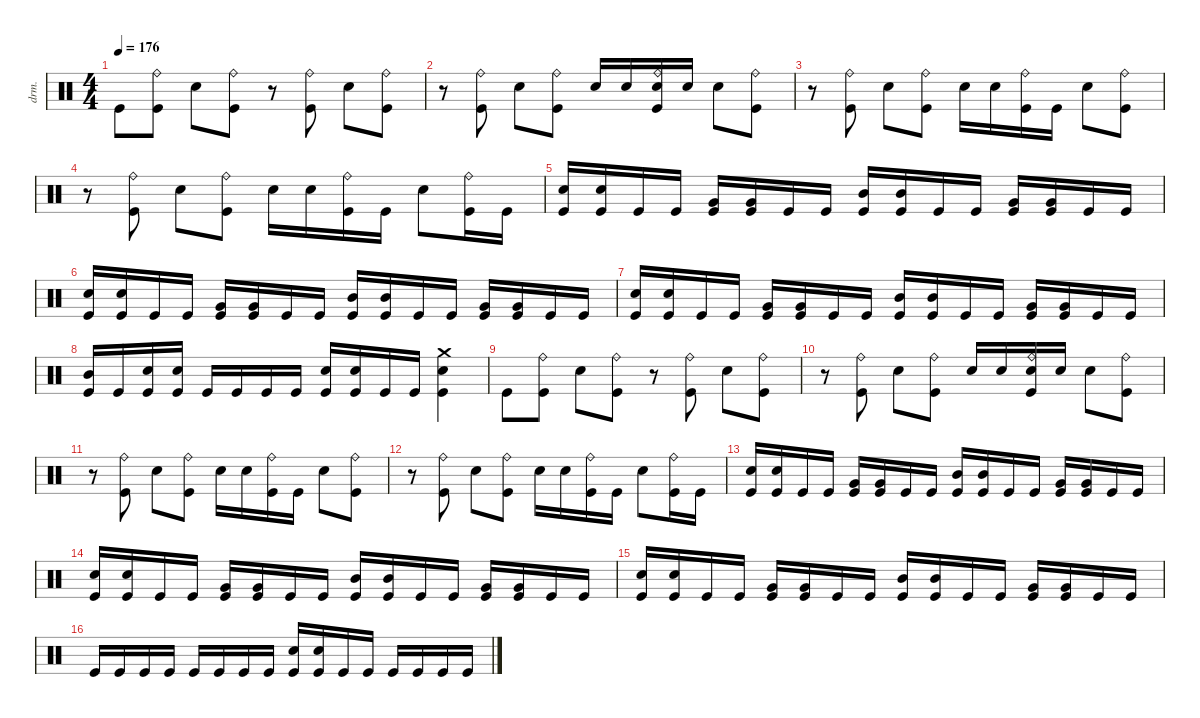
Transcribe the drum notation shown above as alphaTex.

\defaultSystemsLayout 4
\hideDynamics
\bracketExtendMode nobrackets
\track ("Gene Hoglan " "drm.") {instrument percussion}
\staff {score}
\articulation defaults
\ts (4 4)
\tempo 176
\clef neutral
\ks c "Kick (hit)".8{dy f}
("Ride (bell)" "Kick (hit)").8 "Snare (hit) 2".8 ("Ride (bell)" "Kick (hit)").8 r.8 ("Ride (bell)" "Kick (hit)").8 "Snare (hit) 2".8 ("Ride (bell)" "Kick (hit)").8 |
r.8 ("Ride (bell)" "Kick (hit)").8 "Snare (hit) 2".8 ("Ride (bell)" "Kick (hit)").8 "Snare (hit) 2".16 "Snare (hit) 2".16 ("Ride (bell)" "Snare (hit) 2" "Kick (hit)").16 "Snare (hit) 2".16 "Snare (hit) 2".8 ("Ride (bell)" "Kick (hit)").8 |
r.8 ("Ride (bell)" "Kick (hit)").8 "Snare (hit) 2".8 ("Ride (bell)" "Kick (hit)").8 "Snare (hit) 2".16 "Snare (hit) 2".16 ("Ride (bell)" "Kick (hit)").16 "Kick (hit)".16 "Snare (hit) 2".8 ("Ride (bell)" "Kick (hit)").8 |
r.8 ("Ride (bell)" "Kick (hit)").8 "Snare (hit) 2".8 ("Ride (bell)" "Kick (hit)").8 "Snare (hit) 2".16 "Snare (hit) 2".16 ("Ride (bell)" "Kick (hit)").16 "Kick (hit)".16 "Snare (hit) 2".8 ("Ride (bell)" "Kick (hit)").16 "Kick (hit)".16 |
("Snare (hit) 2" "Kick (hit)").16 ("Snare (hit) 2" "Kick (hit)").16 "Kick (hit)".16 "Kick (hit)".16 ("Very Low Tom (hit)" "Kick (hit)").16 ("Very Low Tom (hit)" "Kick (hit)").16 "Kick (hit)".16 "Kick (hit)".16 ("Mid Tom (hit)" "Kick (hit)").16 ("Mid Tom (hit)" "Kick (hit)").16 "Kick (hit)".16 "Kick (hit)".16 ("Very Low Tom (hit)" "Kick (hit)").16 ("Very Low Tom (hit)" "Kick (hit)").16 "Kick (hit)".16 "Kick (hit)".16 |
("Snare (hit) 2" "Kick (hit)").16 ("Snare (hit) 2" "Kick (hit)").16 "Kick (hit)".16 "Kick (hit)".16 ("Very Low Tom (hit)" "Kick (hit)").16 ("Very Low Tom (hit)" "Kick (hit)").16 "Kick (hit)".16 "Kick (hit)".16 ("Mid Tom (hit)" "Kick (hit)").16 ("Mid Tom (hit)" "Kick (hit)").16 "Kick (hit)".16 "Kick (hit)".16 ("Very Low Tom (hit)" "Kick (hit)").16 ("Very Low Tom (hit)" "Kick (hit)").16 "Kick (hit)".16 "Kick (hit)".16 |
("Snare (hit) 2" "Kick (hit)").16 ("Snare (hit) 2" "Kick (hit)").16 "Kick (hit)".16 "Kick (hit)".16 ("Very Low Tom (hit)" "Kick (hit)").16 ("Very Low Tom (hit)" "Kick (hit)").16 "Kick (hit)".16 "Kick (hit)".16 ("Mid Tom (hit)" "Kick (hit)").16 ("Mid Tom (hit)" "Kick (hit)").16 "Kick (hit)".16 "Kick (hit)".16 ("Very Low Tom (hit)" "Kick (hit)").16 ("Very Low Tom (hit)" "Kick (hit)").16 "Kick (hit)".16 "Kick (hit)".16 |
("Mid Tom (hit)" "Kick (hit)").16 "Kick (hit)".16 ("Snare (hit) 2" "Kick (hit)").16 ("Snare (hit) 2" "Kick (hit)").16 "Kick (hit)".16 "Kick (hit)".16 "Kick (hit)".16 "Kick (hit)".16 ("Snare (hit) 2" "Kick (hit)").16 ("Snare (hit) 2" "Kick (hit)").16 "Kick (hit)".16 "Kick (hit)".16 ("Crash medium (hit)" "Snare (hit) 2" "Kick (hit)").4 |
"Kick (hit)".8 ("Ride (bell)" "Kick (hit)").8 "Snare (hit) 2".8 ("Ride (bell)" "Kick (hit)").8 r.8 ("Ride (bell)" "Kick (hit)").8 "Snare (hit) 2".8 ("Ride (bell)" "Kick (hit)").8 |
r.8 ("Ride (bell)" "Kick (hit)").8 "Snare (hit) 2".8 ("Ride (bell)" "Kick (hit)").8 "Snare (hit) 2".16 "Snare (hit) 2".16 ("Ride (bell)" "Snare (hit) 2" "Kick (hit)").16 "Snare (hit) 2".16 "Snare (hit) 2".8 ("Ride (bell)" "Kick (hit)").8 |
r.8 ("Ride (bell)" "Kick (hit)").8 "Snare (hit) 2".8 ("Ride (bell)" "Kick (hit)").8 "Snare (hit) 2".16 "Snare (hit) 2".16 ("Ride (bell)" "Kick (hit)").16 "Kick (hit)".16 "Snare (hit) 2".8 ("Ride (bell)" "Kick (hit)").8 |
r.8 ("Ride (bell)" "Kick (hit)").8 "Snare (hit) 2".8 ("Ride (bell)" "Kick (hit)").8 "Snare (hit) 2".16 "Snare (hit) 2".16 ("Ride (bell)" "Kick (hit)").16 "Kick (hit)".16 "Snare (hit) 2".8 ("Ride (bell)" "Kick (hit)").16 "Kick (hit)".16 |
("Snare (hit) 2" "Kick (hit)").16 ("Snare (hit) 2" "Kick (hit)").16 "Kick (hit)".16 "Kick (hit)".16 ("Very Low Tom (hit)" "Kick (hit)").16 ("Very Low Tom (hit)" "Kick (hit)").16 "Kick (hit)".16 "Kick (hit)".16 ("Mid Tom (hit)" "Kick (hit)").16 ("Mid Tom (hit)" "Kick (hit)").16 "Kick (hit)".16 "Kick (hit)".16 ("Very Low Tom (hit)" "Kick (hit)").16 ("Very Low Tom (hit)" "Kick (hit)").16 "Kick (hit)".16 "Kick (hit)".16 |
("Snare (hit) 2" "Kick (hit)").16 ("Snare (hit) 2" "Kick (hit)").16 "Kick (hit)".16 "Kick (hit)".16 ("Very Low Tom (hit)" "Kick (hit)").16 ("Very Low Tom (hit)" "Kick (hit)").16 "Kick (hit)".16 "Kick (hit)".16 ("Mid Tom (hit)" "Kick (hit)").16 ("Mid Tom (hit)" "Kick (hit)").16 "Kick (hit)".16 "Kick (hit)".16 ("Very Low Tom (hit)" "Kick (hit)").16 ("Very Low Tom (hit)" "Kick (hit)").16 "Kick (hit)".16 "Kick (hit)".16 |
("Snare (hit) 2" "Kick (hit)").16 ("Snare (hit) 2" "Kick (hit)").16 "Kick (hit)".16 "Kick (hit)".16 ("Very Low Tom (hit)" "Kick (hit)").16 ("Very Low Tom (hit)" "Kick (hit)").16 "Kick (hit)".16 "Kick (hit)".16 ("Mid Tom (hit)" "Kick (hit)").16 ("Mid Tom (hit)" "Kick (hit)").16 "Kick (hit)".16 "Kick (hit)".16 ("Very Low Tom (hit)" "Kick (hit)").16 ("Very Low Tom (hit)" "Kick (hit)").16 "Kick (hit)".16 "Kick (hit)".16 |
"Kick (hit)".16 "Kick (hit)".16 "Kick (hit)".16 "Kick (hit)".16 "Kick (hit)".16 "Kick (hit)".16 "Kick (hit)".16 "Kick (hit)".16 ("Snare (hit) 2" "Kick (hit)").16 ("Snare (hit) 2" "Kick (hit)").16 "Kick (hit)".16 "Kick (hit)".16 "Kick (hit)".16 "Kick (hit)".16 "Kick (hit)".16 "Kick (hit)".16
